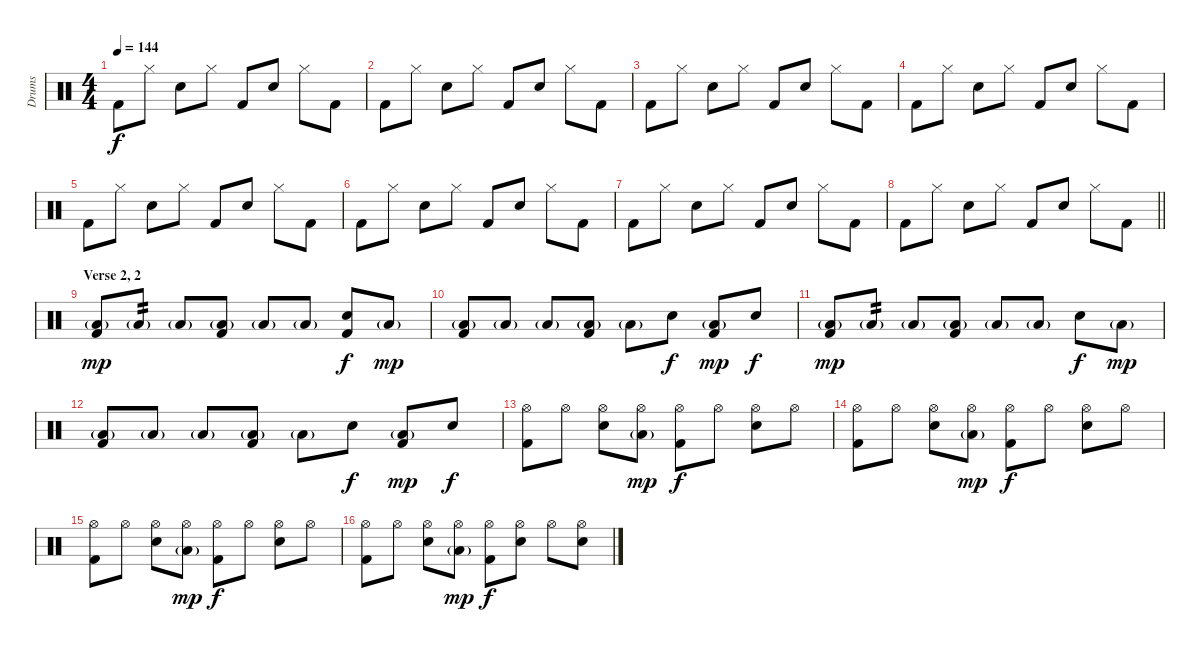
\track ("Drums" "Drums") {instrument percussion}
\staff {score}
\articulation defaults
\ts (4 4)
\tempo 144
\clef neutral
\ks c "Kick (hit) 2".8{dy f} "Hi-Hat (closed)".8 "Snare (hit) 2".8 "Hi-Hat (closed)".8 "Kick (hit) 2".8 "Snare (hit) 2".8 "Hi-Hat (closed)".8 "Kick (hit) 2".8
|
"Kick (hit) 2".8 "Hi-Hat (closed)".8 "Snare (hit) 2".8 "Hi-Hat (closed)".8 "Kick (hit) 2".8 "Snare (hit) 2".8 "Hi-Hat (closed)".8 "Kick (hit) 2".8 |
"Kick (hit) 2".8 "Hi-Hat (closed)".8 "Snare (hit) 2".8 "Hi-Hat (closed)".8 "Kick (hit) 2".8 "Snare (hit) 2".8 "Hi-Hat (closed)".8 "Kick (hit) 2".8 |
"Kick (hit) 2".8 "Hi-Hat (closed)".8 "Snare (hit) 2".8 "Hi-Hat (closed)".8 "Kick (hit) 2".8 "Snare (hit) 2".8 "Hi-Hat (closed)".8 "Kick (hit) 2".8 |
"Kick (hit) 2".8 "Hi-Hat (closed)".8 "Snare (hit) 2".8 "Hi-Hat (closed)".8 "Kick (hit) 2".8 "Snare (hit) 2".8 "Hi-Hat (closed)".8 "Kick (hit) 2".8 |
"Kick (hit) 2".8 "Hi-Hat (closed)".8 "Snare (hit) 2".8 "Hi-Hat (closed)".8 "Kick (hit) 2".8 "Snare (hit) 2".8 "Hi-Hat (closed)".8 "Kick (hit) 2".8 |
"Kick (hit) 2".8 "Hi-Hat (closed)".8 "Snare (hit) 2".8 "Hi-Hat (closed)".8 "Kick (hit) 2".8 "Snare (hit) 2".8 "Hi-Hat (closed)".8 "Kick (hit) 2".8 |
\barLineRight lightlight "Kick (hit) 2".8 "Hi-Hat (closed)".8 "Snare (hit) 2".8 "Hi-Hat (closed)".8 "Kick (hit) 2".8 "Snare (hit) 2".8 "Hi-Hat (closed)".8 "Kick (hit) 2".8
|
\section ("" "Verse 2, 2")
("Low Floor Tom (hit)"{g} "Kick (hit) 2").8{dy mp} "Low Floor Tom (hit)"{g}.8{tp 2} "Low Floor Tom (hit)"{g}.8 ("Low Floor Tom (hit)"{g} "Kick (hit) 2").8 "Low Floor Tom (hit)"{g}.8 "Low Floor Tom (hit)"{g}.8 ("Snare (hit) 2" "Kick (hit) 2").8{dy f} "Low Floor Tom (hit)"{g}.8{dy mp} |
("Low Floor Tom (hit)"{g} "Kick (hit) 2").8 "Low Floor Tom (hit)"{g}.8 "Low Floor Tom (hit)"{g}.8 ("Low Floor Tom (hit)"{g} "Kick (hit) 2").8 "Low Floor Tom (hit)"{g}.8 "Snare (hit) 2".8{dy f} ("Low Floor Tom (hit)"{g} "Kick (hit) 2").8{dy mp} "Snare (hit) 2".8{dy f} |
("Low Floor Tom (hit)"{g} "Kick (hit) 2").8{dy mp} "Low Floor Tom (hit)"{g}.8{tp 2} "Low Floor Tom (hit)"{g}.8 ("Low Floor Tom (hit)"{g} "Kick (hit) 2").8 "Low Floor Tom (hit)"{g}.8 "Low Floor Tom (hit)"{g}.8 "Snare (hit) 2".8{dy f} "Low Floor Tom (hit)"{g}.8{dy mp} |
("Low Floor Tom (hit)"{g} "Kick (hit) 2").8 "Low Floor Tom (hit)"{g}.8 "Low Floor Tom (hit)"{g}.8 ("Low Floor Tom (hit)"{g} "Kick (hit) 2").8 "Low Floor Tom (hit)"{g}.8 "Snare (hit) 2".8{dy f} ("Low Floor Tom (hit)"{g} "Kick (hit) 2").8{dy mp} "Snare (hit) 2".8{dy f} |
("Hi-Hat (open)" "Kick (hit) 2").8 "Hi-Hat (open)".8 ("Hi-Hat (open)" "Snare (hit) 2").8 ("Hi-Hat (open)" "Low Floor Tom (hit)"{g}).8{dy mp} ("Hi-Hat (open)" "Kick (hit) 2").8{dy f} "Hi-Hat (open)".8 ("Hi-Hat (open)" "Snare (hit) 2").8 "Hi-Hat (open)".8 |
("Hi-Hat (open)" "Kick (hit) 2").8 "Hi-Hat (open)".8 ("Hi-Hat (open)" "Snare (hit) 2").8 ("Hi-Hat (open)" "Low Floor Tom (hit)"{g}).8{dy mp} ("Hi-Hat (open)" "Kick (hit) 2").8{dy f} "Hi-Hat (open)".8 ("Hi-Hat (open)" "Snare (hit) 2").8 "Hi-Hat (open)".8 |
("Hi-Hat (open)" "Kick (hit) 2").8 "Hi-Hat (open)".8 ("Hi-Hat (open)" "Snare (hit) 2").8 ("Hi-Hat (open)" "Low Floor Tom (hit)"{g}).8{dy mp} ("Hi-Hat (open)" "Kick (hit) 2").8{dy f} "Hi-Hat (open)".8 ("Hi-Hat (open)" "Snare (hit) 2").8 "Hi-Hat (open)".8 |
("Hi-Hat (open)" "Kick (hit) 2").8 "Hi-Hat (open)".8 ("Hi-Hat (open)" "Snare (hit) 2").8 ("Hi-Hat (open)" "Low Floor Tom (hit)"{g}).8{dy mp} ("Hi-Hat (open)" "Kick (hit) 2").8{dy f} ("Hi-Hat (open)" "Snare (hit) 2").8 "Hi-Hat (open)".8 ("Hi-Hat (open)" "Snare (hit) 2").8
